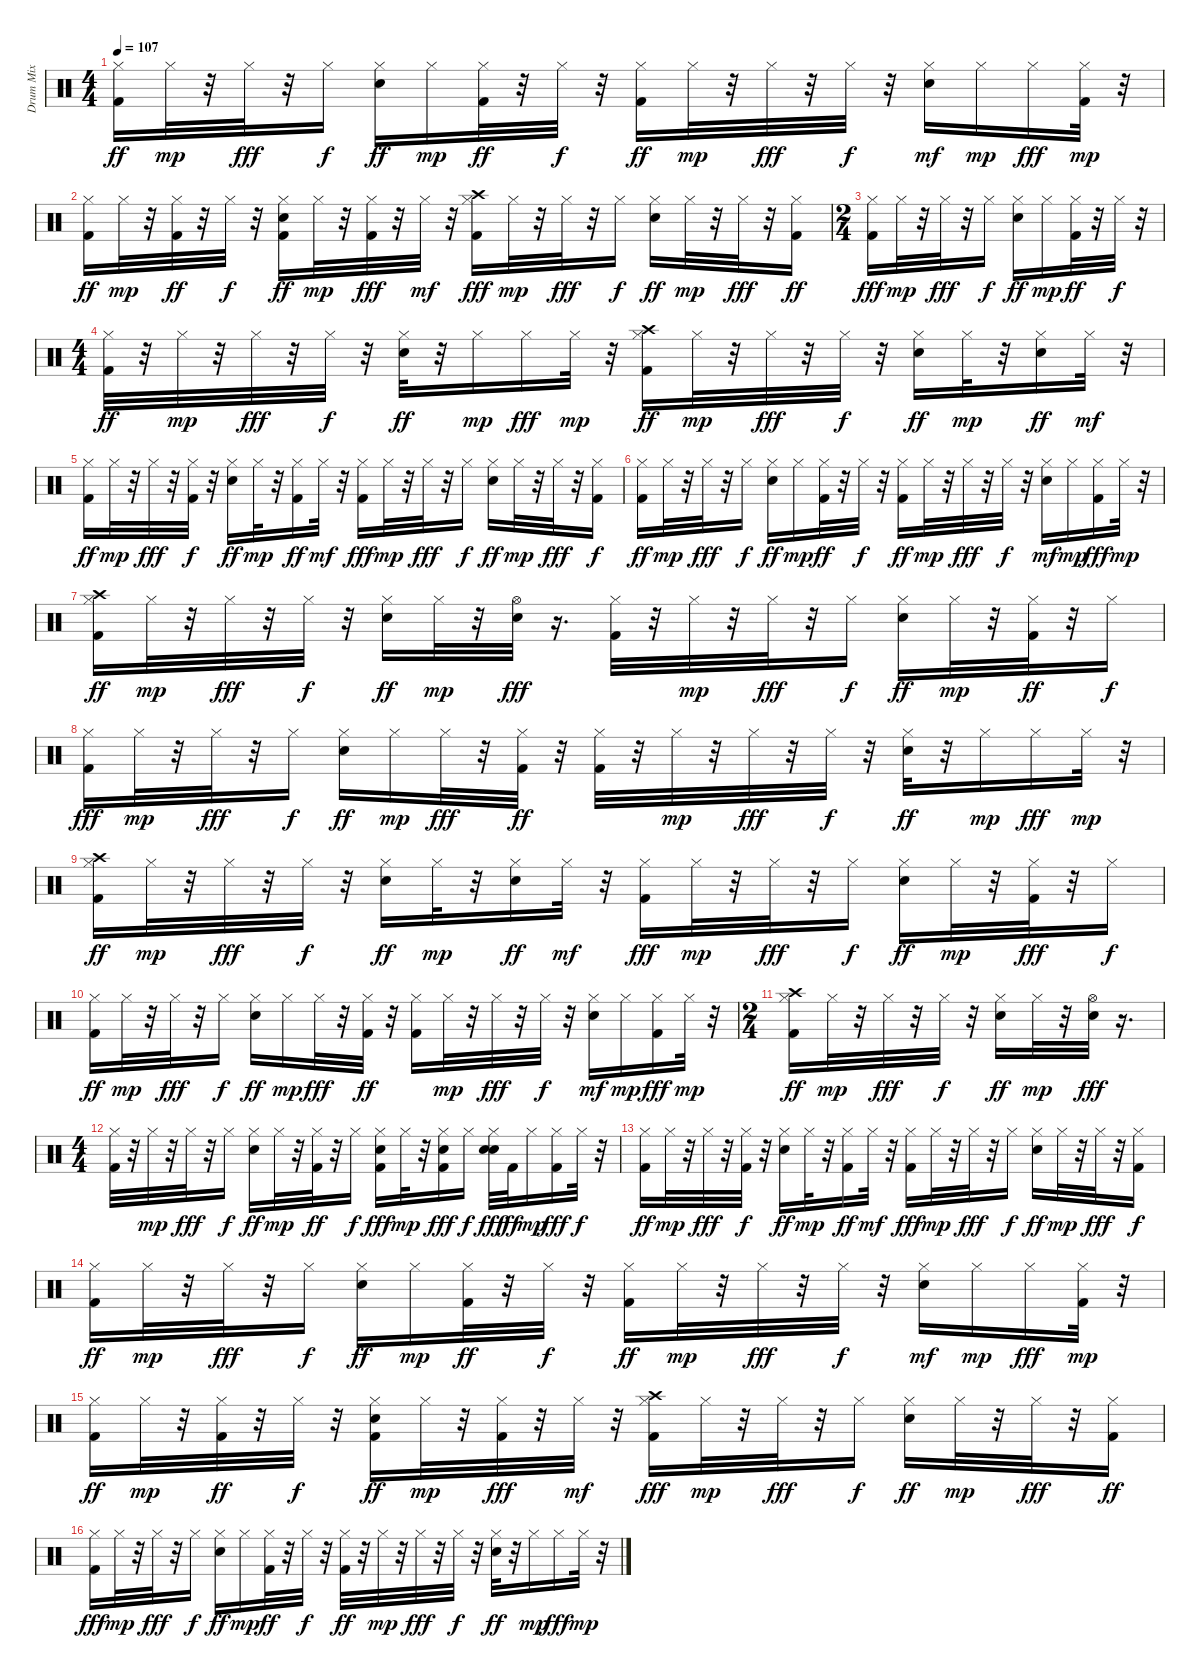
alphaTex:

\track ("Drum Mix" "Drum Mix") {instrument percussion}
\staff {score}
\articulation defaults
\ts (4 4)
\tempo 107
\clef neutral
\ks c
("Hi-Hat (closed)" "Kick (hit) 2").16{dy ff} "Hi-Hat (closed)".32{dy mp} r.32 "Hi-Hat (closed)".32{dy fff} r.32 "Hi-Hat (closed)".16{dy f} ("Hi-Hat (closed)" "Snare (hit) 2").16{dy ff} "Hi-Hat (closed)".16{dy mp} ("Hi-Hat (closed)" "Kick (hit) 2").32{dy ff} r.32 "Hi-Hat (closed)".32{dy f} r.32 ("Hi-Hat (closed)" "Kick (hit) 2").16{dy ff} "Hi-Hat (closed)".32{dy mp} r.32 "Hi-Hat (closed)".32{dy fff} r.32 "Hi-Hat (closed)".32{dy f} r.32 ("Hi-Hat (closed)" "Snare (hit) 2").16{dy mf} "Hi-Hat (closed)".16{dy mp} "Hi-Hat (closed)".16{dy fff} ("Hi-Hat (closed)" "Kick (hit) 2").32{dy mp} r.32 |
("Hi-Hat (closed)" "Kick (hit) 2").16{dy ff} "Hi-Hat (closed)".32{dy mp} r.32 ("Hi-Hat (closed)" "Kick (hit) 2").32{dy ff} r.32 "Hi-Hat (closed)".32{dy f} r.32 ("Hi-Hat (closed)" "Snare (hit) 2" "Kick (hit) 2").16{dy ff} "Hi-Hat (closed)".32{dy mp} r.32 ("Hi-Hat (closed)" "Kick (hit) 2").32{dy fff} r.32 "Hi-Hat (closed)".32{dy mf} r.32 ("Hi-Hat (closed)" "Kick (hit) 2" "Crash high (hit)").16{dy fff} "Hi-Hat (closed)".32{dy mp} r.32 "Hi-Hat (closed)".32{dy fff} r.32 "Hi-Hat (closed)".16{dy f} ("Hi-Hat (closed)" "Snare (hit) 2").16{dy ff} "Hi-Hat (closed)".32{dy mp} r.32 "Hi-Hat (closed)".32{dy fff} r.32 ("Hi-Hat (closed)" "Kick (hit) 2").16{dy ff} |
\ts (2 4)
("Hi-Hat (closed)" "Kick (hit) 2").16{dy fff} "Hi-Hat (closed)".32{dy mp} r.32 "Hi-Hat (closed)".32{dy fff} r.32 "Hi-Hat (closed)".16{dy f} ("Hi-Hat (closed)" "Snare (hit) 2").16{dy ff} "Hi-Hat (closed)".16{dy mp} ("Hi-Hat (closed)" "Kick (hit) 2").32{dy ff} r.32 "Hi-Hat (closed)".32{dy f} r.32 |
\ts (4 4)
("Hi-Hat (closed)" "Kick (hit) 2").32{dy ff} r.32 "Hi-Hat (closed)".32{dy mp} r.32 "Hi-Hat (closed)".32{dy fff} r.32 "Hi-Hat (closed)".32{dy f} r.32 ("Hi-Hat (closed)" "Snare (hit) 2").32{dy ff} r.32 "Hi-Hat (closed)".16{dy mp} "Hi-Hat (closed)".16{dy fff} "Hi-Hat (closed)".32{dy mp} r.32 ("Hi-Hat (closed)" "Crash high (hit)" "Kick (hit) 2").16{dy ff} "Hi-Hat (closed)".32{dy mp} r.32 "Hi-Hat (closed)".32{dy fff} r.32 "Hi-Hat (closed)".32{dy f} r.32 ("Hi-Hat (closed)" "Snare (hit) 2").16{dy ff} "Hi-Hat (closed)".32{dy mp} r.32 ("Hi-Hat (closed)" "Snare (hit) 2").16{dy ff} "Hi-Hat (closed)".32{dy mf} r.32 |
("Hi-Hat (closed)" "Kick (hit) 2").16{dy ff} "Hi-Hat (closed)".32{dy mp} r.32 "Hi-Hat (closed)".32{dy fff} r.32 ("Hi-Hat (closed)" "Kick (hit) 2").32{dy f} r.32 ("Hi-Hat (closed)" "Snare (hit) 2").16{dy ff} "Hi-Hat (closed)".32{dy mp} r.32 ("Hi-Hat (closed)" "Kick (hit) 2").16{dy ff} "Hi-Hat (closed)".32{dy mf} r.32 ("Hi-Hat (closed)" "Kick (hit) 2").16{dy fff} "Hi-Hat (closed)".32{dy mp} r.32 "Hi-Hat (closed)".32{dy fff} r.32 "Hi-Hat (closed)".16{dy f} ("Hi-Hat (closed)" "Snare (hit) 2").16{dy ff} "Hi-Hat (closed)".32{dy mp} r.32 "Hi-Hat (closed)".32{dy fff} r.32 ("Hi-Hat (closed)" "Kick (hit) 2").16{dy f} |
("Hi-Hat (closed)" "Kick (hit) 2").16{dy ff} "Hi-Hat (closed)".32{dy mp} r.32 "Hi-Hat (closed)".32{dy fff} r.32 "Hi-Hat (closed)".16{dy f} ("Hi-Hat (closed)" "Snare (hit) 2").16{dy ff} "Hi-Hat (closed)".16{dy mp} ("Hi-Hat (closed)" "Kick (hit) 2").32{dy ff} r.32 "Hi-Hat (closed)".32{dy f} r.32 ("Hi-Hat (closed)" "Kick (hit) 2").16{dy ff} "Hi-Hat (closed)".32{dy mp} r.32 "Hi-Hat (closed)".32{dy fff} r.32 "Hi-Hat (closed)".32{dy f} r.32 ("Hi-Hat (closed)" "Snare (hit) 2").16{dy mf} "Hi-Hat (closed)".16{dy mp} ("Hi-Hat (closed)" "Kick (hit) 2").16{dy fff} "Hi-Hat (closed)".32{dy mp} r.32 |
("Hi-Hat (closed)" "Crash high (hit)" "Kick (hit) 2").16{dy ff} "Hi-Hat (closed)".32{dy mp} r.32 "Hi-Hat (closed)".32{dy fff} r.32 "Hi-Hat (closed)".32{dy f} r.32 ("Hi-Hat (closed)" "Snare (hit) 2").16{dy ff} "Hi-Hat (closed)".32{dy mp} r.32 ("Hi-Hat (open)" "Snare (hit) 2").32{dy fff} r.16{d} ("Hi-Hat (closed)" "Kick (hit) 2").32 r.32 "Hi-Hat (closed)".32{dy mp} r.32 "Hi-Hat (closed)".32{dy fff} r.32 "Hi-Hat (closed)".16{dy f} ("Hi-Hat (closed)" "Snare (hit) 2").16{dy ff} "Hi-Hat (closed)".32{dy mp} r.32 ("Hi-Hat (closed)" "Kick (hit) 2").32{dy ff} r.32 "Hi-Hat (closed)".16{dy f} |
("Hi-Hat (closed)" "Kick (hit) 2").16{dy fff} "Hi-Hat (closed)".32{dy mp} r.32 "Hi-Hat (closed)".32{dy fff} r.32 "Hi-Hat (closed)".16{dy f} ("Hi-Hat (closed)" "Snare (hit) 2").16{dy ff} "Hi-Hat (closed)".16{dy mp} "Hi-Hat (closed)".32{dy fff} r.32 ("Hi-Hat (closed)" "Kick (hit) 2").32{dy ff} r.32 ("Hi-Hat (closed)" "Kick (hit) 2").32 r.32 "Hi-Hat (closed)".32{dy mp} r.32 "Hi-Hat (closed)".32{dy fff} r.32 "Hi-Hat (closed)".32{dy f} r.32 ("Hi-Hat (closed)" "Snare (hit) 2").32{dy ff} r.32 "Hi-Hat (closed)".16{dy mp} "Hi-Hat (closed)".16{dy fff} "Hi-Hat (closed)".32{dy mp} r.32 |
("Hi-Hat (closed)" "Crash high (hit)" "Kick (hit) 2").16{dy ff} "Hi-Hat (closed)".32{dy mp} r.32 "Hi-Hat (closed)".32{dy fff} r.32 "Hi-Hat (closed)".32{dy f} r.32 ("Hi-Hat (closed)" "Snare (hit) 2").16{dy ff} "Hi-Hat (closed)".32{dy mp} r.32 ("Hi-Hat (closed)" "Snare (hit) 2").16{dy ff} "Hi-Hat (closed)".32{dy mf} r.32 ("Hi-Hat (closed)" "Kick (hit) 2").16{dy fff} "Hi-Hat (closed)".32{dy mp} r.32 "Hi-Hat (closed)".32{dy fff} r.32 "Hi-Hat (closed)".16{dy f} ("Hi-Hat (closed)" "Snare (hit) 2").16{dy ff} "Hi-Hat (closed)".32{dy mp} r.32 ("Hi-Hat (closed)" "Kick (hit) 2").32{dy fff} r.32 "Hi-Hat (closed)".16{dy f} |
("Hi-Hat (closed)" "Kick (hit) 2").16{dy ff} "Hi-Hat (closed)".32{dy mp} r.32 "Hi-Hat (closed)".32{dy fff} r.32 "Hi-Hat (closed)".16{dy f} ("Hi-Hat (closed)" "Snare (hit) 2").16{dy ff} "Hi-Hat (closed)".16{dy mp} "Hi-Hat (closed)".32{dy fff} r.32 ("Hi-Hat (closed)" "Kick (hit) 2").32{dy ff} r.32 ("Hi-Hat (closed)" "Kick (hit) 2").16 "Hi-Hat (closed)".32{dy mp} r.32 "Hi-Hat (closed)".32{dy fff} r.32 "Hi-Hat (closed)".32{dy f} r.32 ("Hi-Hat (closed)" "Snare (hit) 2").16{dy mf} "Hi-Hat (closed)".16{dy mp} ("Hi-Hat (closed)" "Kick (hit) 2").16{dy fff} "Hi-Hat (closed)".32{dy mp} r.32 |
\ts (2 4)
("Hi-Hat (closed)" "Crash high (hit)" "Kick (hit) 2").16{dy ff} "Hi-Hat (closed)".32{dy mp} r.32 "Hi-Hat (closed)".32{dy fff} r.32 "Hi-Hat (closed)".32{dy f} r.32 ("Hi-Hat (closed)" "Snare (hit) 2").16{dy ff} "Hi-Hat (closed)".32{dy mp} r.32 ("Hi-Hat (open)" "Snare (hit) 2").32{dy fff} r.16{d} |
\ts (4 4)
("Hi-Hat (closed)" "Kick (hit) 2").32 r.32 "Hi-Hat (closed)".32{dy mp} r.32 "Hi-Hat (closed)".32{dy fff} r.32 "Hi-Hat (closed)".16{dy f} ("Hi-Hat (closed)" "Snare (hit) 2").16{dy ff} "Hi-Hat (closed)".32{dy mp} r.32 ("Hi-Hat (closed)" "Kick (hit) 2").32{dy ff} r.32 "Hi-Hat (closed)".16{dy f} ("Hi-Hat (closed)" "Snare (hit) 2" "Kick (hit) 2").16{dy fff} "Hi-Hat (closed)".32{dy mp} r.32 ("Hi-Hat (closed)" "Snare (hit) 2" "Kick (hit) 2").16{dy fff} "Hi-Hat (closed)".16{dy f} ("Snare (hit) 2" "Hi-Hat (closed)" "Snare (hit) 2").32{dy fff} "Kick (hit) 2".32{dy ff} "Hi-Hat (closed)".16{dy mp} ("Hi-Hat (closed)" "Kick (hit) 2").16{dy fff} "Hi-Hat (closed)".32{dy f} r.32 |
("Hi-Hat (closed)" "Kick (hit) 2").16{dy ff} "Hi-Hat (closed)".32{dy mp} r.32 "Hi-Hat (closed)".32{dy fff} r.32 ("Hi-Hat (closed)" "Kick (hit) 2").32{dy f} r.32 ("Hi-Hat (closed)" "Snare (hit) 2").16{dy ff} "Hi-Hat (closed)".32{dy mp} r.32 ("Hi-Hat (closed)" "Kick (hit) 2").16{dy ff} "Hi-Hat (closed)".32{dy mf} r.32 ("Hi-Hat (closed)" "Kick (hit) 2").16{dy fff} "Hi-Hat (closed)".32{dy mp} r.32 "Hi-Hat (closed)".32{dy fff} r.32 "Hi-Hat (closed)".16{dy f} ("Hi-Hat (closed)" "Snare (hit) 2").16{dy ff} "Hi-Hat (closed)".32{dy mp} r.32 "Hi-Hat (closed)".32{dy fff} r.32 ("Hi-Hat (closed)" "Kick (hit) 2").16{dy f} |
("Hi-Hat (closed)" "Kick (hit) 2").16{dy ff} "Hi-Hat (closed)".32{dy mp} r.32 "Hi-Hat (closed)".32{dy fff} r.32 "Hi-Hat (closed)".16{dy f} ("Hi-Hat (closed)" "Snare (hit) 2").16{dy ff} "Hi-Hat (closed)".16{dy mp} ("Hi-Hat (closed)" "Kick (hit) 2").32{dy ff} r.32 "Hi-Hat (closed)".32{dy f} r.32 ("Hi-Hat (closed)" "Kick (hit) 2").16{dy ff} "Hi-Hat (closed)".32{dy mp} r.32 "Hi-Hat (closed)".32{dy fff} r.32 "Hi-Hat (closed)".32{dy f} r.32 ("Hi-Hat (closed)" "Snare (hit) 2").16{dy mf} "Hi-Hat (closed)".16{dy mp} "Hi-Hat (closed)".16{dy fff} ("Hi-Hat (closed)" "Kick (hit) 2").32{dy mp} r.32 |
("Hi-Hat (closed)" "Kick (hit) 2").16{dy ff} "Hi-Hat (closed)".32{dy mp} r.32 ("Hi-Hat (closed)" "Kick (hit) 2").32{dy ff} r.32 "Hi-Hat (closed)".32{dy f} r.32 ("Hi-Hat (closed)" "Snare (hit) 2" "Kick (hit) 2").16{dy ff} "Hi-Hat (closed)".32{dy mp} r.32 ("Hi-Hat (closed)" "Kick (hit) 2").32{dy fff} r.32 "Hi-Hat (closed)".32{dy mf} r.32 ("Hi-Hat (closed)" "Kick (hit) 2" "Crash high (hit)").16{dy fff} "Hi-Hat (closed)".32{dy mp} r.32 "Hi-Hat (closed)".32{dy fff} r.32 "Hi-Hat (closed)".16{dy f} ("Hi-Hat (closed)" "Snare (hit) 2").16{dy ff} "Hi-Hat (closed)".32{dy mp} r.32 "Hi-Hat (closed)".32{dy fff} r.32 ("Hi-Hat (closed)" "Kick (hit) 2").16{dy ff} |
("Hi-Hat (closed)" "Kick (hit) 2").16{dy fff} "Hi-Hat (closed)".32{dy mp} r.32 "Hi-Hat (closed)".32{dy fff} r.32 "Hi-Hat (closed)".16{dy f} ("Hi-Hat (closed)" "Snare (hit) 2").16{dy ff} "Hi-Hat (closed)".16{dy mp} ("Hi-Hat (closed)" "Kick (hit) 2").32{dy ff} r.32 "Hi-Hat (closed)".32{dy f} r.32 ("Hi-Hat (closed)" "Kick (hit) 2").32{dy ff} r.32 "Hi-Hat (closed)".32{dy mp} r.32 "Hi-Hat (closed)".32{dy fff} r.32 "Hi-Hat (closed)".32{dy f} r.32 ("Hi-Hat (closed)" "Snare (hit) 2").32{dy ff} r.32 "Hi-Hat (closed)".16{dy mp} "Hi-Hat (closed)".16{dy fff} "Hi-Hat (closed)".32{dy mp} r.32
